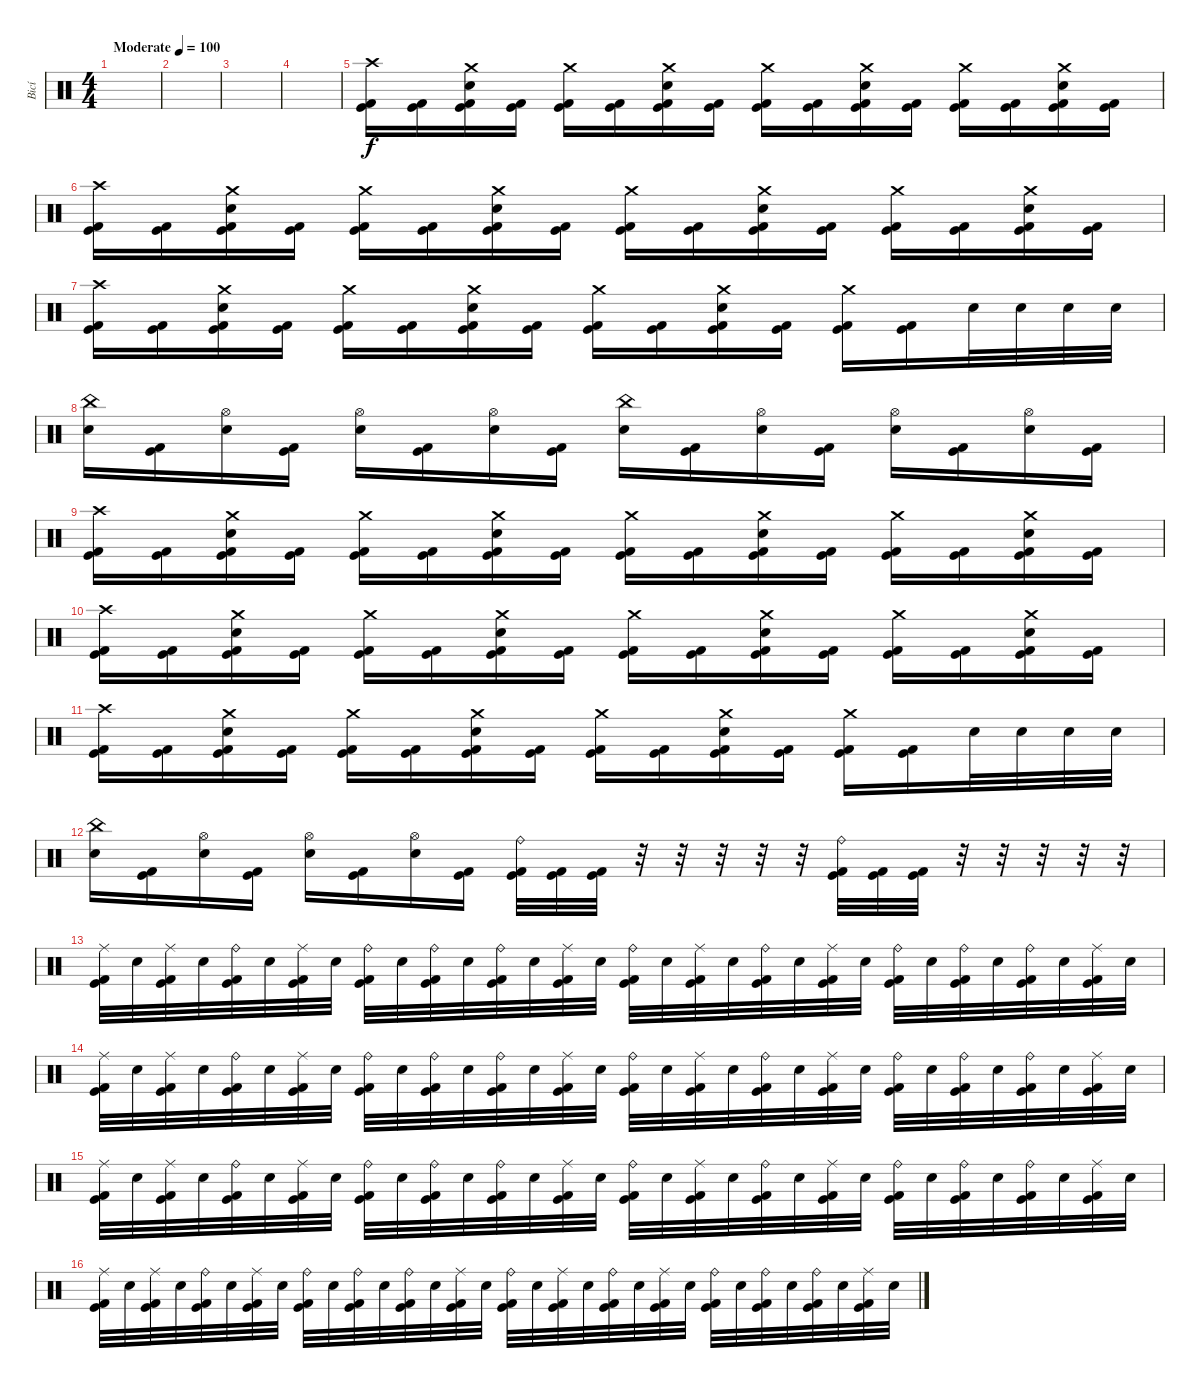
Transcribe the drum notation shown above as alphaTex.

\track ("Bicí" "Bicí") {instrument percussion}
\staff {score}
\articulation defaults
\ts (4 4)
\tempo (100 "Moderate")
\clef neutral
\ks c
|
|
|
|
("Kick (hit) 2" "Kick (hit)" "Crash high (hit)").16 ("Kick (hit) 2" "Kick (hit)").16 ("Kick (hit) 2" "Kick (hit)" "Electric Snare (hit)" "Crash medium (hit)").16 ("Kick (hit)" "Kick (hit) 2").16 ("Kick (hit) 2" "Kick (hit)" "Crash medium (hit)").16 ("Kick (hit) 2" "Kick (hit)").16 ("Kick (hit) 2" "Kick (hit)" "Electric Snare (hit)" "Crash medium (hit)").16 ("Kick (hit)" "Kick (hit) 2").16 ("Kick (hit) 2" "Kick (hit)" "Crash medium (hit)").16 ("Kick (hit) 2" "Kick (hit)").16 ("Kick (hit) 2" "Kick (hit)" "Electric Snare (hit)" "Crash medium (hit)").16 ("Kick (hit)" "Kick (hit) 2").16 ("Kick (hit) 2" "Kick (hit)" "Crash medium (hit)").16 ("Kick (hit) 2" "Kick (hit)").16 ("Kick (hit) 2" "Kick (hit)" "Electric Snare (hit)" "Crash medium (hit)").16 ("Kick (hit)" "Kick (hit) 2").16 |
("Kick (hit) 2" "Kick (hit)" "Crash high (hit)").16 ("Kick (hit) 2" "Kick (hit)").16 ("Kick (hit) 2" "Kick (hit)" "Electric Snare (hit)" "Crash medium (hit)").16 ("Kick (hit)" "Kick (hit) 2").16 ("Kick (hit) 2" "Kick (hit)" "Crash medium (hit)").16 ("Kick (hit) 2" "Kick (hit)").16 ("Kick (hit) 2" "Kick (hit)" "Electric Snare (hit)" "Crash medium (hit)").16 ("Kick (hit)" "Kick (hit) 2").16 ("Kick (hit) 2" "Kick (hit)" "Crash medium (hit)").16 ("Kick (hit) 2" "Kick (hit)").16 ("Kick (hit) 2" "Kick (hit)" "Electric Snare (hit)" "Crash medium (hit)").16 ("Kick (hit)" "Kick (hit) 2").16 ("Kick (hit) 2" "Kick (hit)" "Crash medium (hit)").16 ("Kick (hit) 2" "Kick (hit)").16 ("Kick (hit) 2" "Kick (hit)" "Electric Snare (hit)" "Crash medium (hit)").16 ("Kick (hit)" "Kick (hit) 2").16 |
("Kick (hit) 2" "Kick (hit)" "Crash high (hit)").16 ("Kick (hit) 2" "Kick (hit)").16 ("Kick (hit) 2" "Kick (hit)" "Electric Snare (hit)" "Crash medium (hit)").16 ("Kick (hit)" "Kick (hit) 2").16 ("Kick (hit) 2" "Kick (hit)" "Crash medium (hit)").16 ("Kick (hit) 2" "Kick (hit)").16 ("Kick (hit) 2" "Kick (hit)" "Electric Snare (hit)" "Crash medium (hit)").16 ("Kick (hit)" "Kick (hit) 2").16 ("Kick (hit) 2" "Kick (hit)" "Crash medium (hit)").16 ("Kick (hit) 2" "Kick (hit)").16 ("Kick (hit) 2" "Kick (hit)" "Electric Snare (hit)" "Crash medium (hit)").16 ("Kick (hit)" "Kick (hit) 2").16 ("Kick (hit) 2" "Kick (hit)" "Crash medium (hit)").16 ("Kick (hit) 2" "Kick (hit)").16 "Electric Snare (hit)".32 "Electric Snare (hit)".32 "Electric Snare (hit)".32 "Electric Snare (hit)".32 |
("Electric Snare (hit)" "China (hit)").16 ("Kick (hit) 2" "Kick (hit)").16 ("Hi-Hat (open)" "Electric Snare (hit)").16 ("Kick (hit) 2" "Kick (hit)").16 ("Hi-Hat (open)" "Electric Snare (hit)").16 ("Kick (hit) 2" "Kick (hit)").16 ("Hi-Hat (open)" "Electric Snare (hit)").16 ("Kick (hit) 2" "Kick (hit)").16 ("China (hit)" "Electric Snare (hit)").16 ("Kick (hit) 2" "Kick (hit)").16 ("Hi-Hat (open)" "Electric Snare (hit)").16 ("Kick (hit) 2" "Kick (hit)").16 ("Hi-Hat (open)" "Electric Snare (hit)").16 ("Kick (hit) 2" "Kick (hit)").16 ("Hi-Hat (open)" "Electric Snare (hit)").16 ("Kick (hit) 2" "Kick (hit)").16 |
("Kick (hit) 2" "Kick (hit)" "Crash high (hit)").16 ("Kick (hit) 2" "Kick (hit)").16 ("Kick (hit) 2" "Kick (hit)" "Electric Snare (hit)" "Crash medium (hit)").16 ("Kick (hit)" "Kick (hit) 2").16 ("Kick (hit) 2" "Kick (hit)" "Crash medium (hit)").16 ("Kick (hit) 2" "Kick (hit)").16 ("Kick (hit) 2" "Kick (hit)" "Electric Snare (hit)" "Crash medium (hit)").16 ("Kick (hit)" "Kick (hit) 2").16 ("Kick (hit) 2" "Kick (hit)" "Crash medium (hit)").16 ("Kick (hit) 2" "Kick (hit)").16 ("Kick (hit) 2" "Kick (hit)" "Electric Snare (hit)" "Crash medium (hit)").16 ("Kick (hit)" "Kick (hit) 2").16 ("Kick (hit) 2" "Kick (hit)" "Crash medium (hit)").16 ("Kick (hit) 2" "Kick (hit)").16 ("Kick (hit) 2" "Kick (hit)" "Electric Snare (hit)" "Crash medium (hit)").16 ("Kick (hit)" "Kick (hit) 2").16 |
("Kick (hit) 2" "Kick (hit)" "Crash high (hit)").16 ("Kick (hit) 2" "Kick (hit)").16 ("Kick (hit) 2" "Kick (hit)" "Electric Snare (hit)" "Crash medium (hit)").16 ("Kick (hit)" "Kick (hit) 2").16 ("Kick (hit) 2" "Kick (hit)" "Crash medium (hit)").16 ("Kick (hit) 2" "Kick (hit)").16 ("Kick (hit) 2" "Kick (hit)" "Electric Snare (hit)" "Crash medium (hit)").16 ("Kick (hit)" "Kick (hit) 2").16 ("Kick (hit) 2" "Kick (hit)" "Crash medium (hit)").16 ("Kick (hit) 2" "Kick (hit)").16 ("Kick (hit) 2" "Kick (hit)" "Electric Snare (hit)" "Crash medium (hit)").16 ("Kick (hit)" "Kick (hit) 2").16 ("Kick (hit) 2" "Kick (hit)" "Crash medium (hit)").16 ("Kick (hit) 2" "Kick (hit)").16 ("Kick (hit) 2" "Kick (hit)" "Electric Snare (hit)" "Crash medium (hit)").16 ("Kick (hit)" "Kick (hit) 2").16 |
("Kick (hit) 2" "Kick (hit)" "Crash high (hit)").16 ("Kick (hit) 2" "Kick (hit)").16 ("Kick (hit) 2" "Kick (hit)" "Electric Snare (hit)" "Crash medium (hit)").16 ("Kick (hit)" "Kick (hit) 2").16 ("Kick (hit) 2" "Kick (hit)" "Crash medium (hit)").16 ("Kick (hit) 2" "Kick (hit)").16 ("Kick (hit) 2" "Kick (hit)" "Electric Snare (hit)" "Crash medium (hit)").16 ("Kick (hit)" "Kick (hit) 2").16 ("Kick (hit) 2" "Kick (hit)" "Crash medium (hit)").16 ("Kick (hit) 2" "Kick (hit)").16 ("Kick (hit) 2" "Kick (hit)" "Electric Snare (hit)" "Crash medium (hit)").16 ("Kick (hit)" "Kick (hit) 2").16 ("Kick (hit) 2" "Kick (hit)" "Crash medium (hit)").16 ("Kick (hit) 2" "Kick (hit)").16 "Electric Snare (hit)".32 "Electric Snare (hit)".32 "Electric Snare (hit)".32 "Electric Snare (hit)".32 |
("Electric Snare (hit)" "China (hit)").16 ("Kick (hit) 2" "Kick (hit)").16 ("Hi-Hat (open)" "Electric Snare (hit)").16 ("Kick (hit) 2" "Kick (hit)").16 ("Hi-Hat (open)" "Electric Snare (hit)").16 ("Kick (hit) 2" "Kick (hit)").16 ("Hi-Hat (open)" "Electric Snare (hit)").16 ("Kick (hit) 2" "Kick (hit)").16 ("Ride (bell)" "Kick (hit)" "Kick (hit) 2").32 ("Kick (hit) 2" "Kick (hit)").32 ("Kick (hit) 2" "Kick (hit)").32 r.32 r.32 r.32 r.32 r.32 ("Ride (bell)" "Kick (hit)" "Kick (hit) 2").32 ("Kick (hit) 2" "Kick (hit)").32 ("Kick (hit) 2" "Kick (hit)").32 r.32 r.32 r.32 r.32 r.32 |
("Kick (hit) 2" "Kick (hit)" "Ride (middle)").32 "Electric Snare (hit)".32 ("Kick (hit) 2" "Kick (hit)" "Ride (middle)").32 "Electric Snare (hit)".32 ("Kick (hit) 2" "Kick (hit)" "Ride (bell)").32 "Electric Snare (hit)".32 ("Kick (hit) 2" "Kick (hit)" "Ride (middle)").32 "Electric Snare (hit)".32 ("Kick (hit) 2" "Kick (hit)" "Ride (bell)").32 "Electric Snare (hit)".32 ("Kick (hit) 2" "Kick (hit)" "Ride (bell)").32 "Electric Snare (hit)".32 ("Kick (hit) 2" "Kick (hit)" "Ride (bell)").32 "Electric Snare (hit)".32 ("Kick (hit) 2" "Kick (hit)" "Ride (middle)").32 "Electric Snare (hit)".32 ("Kick (hit) 2" "Kick (hit)" "Ride (bell)").32 "Electric Snare (hit)".32 ("Kick (hit) 2" "Kick (hit)" "Ride (middle)").32 "Electric Snare (hit)".32 ("Kick (hit) 2" "Kick (hit)" "Ride (bell)").32 "Electric Snare (hit)".32 ("Kick (hit) 2" "Kick (hit)" "Ride (middle)").32 "Electric Snare (hit)".32 ("Kick (hit) 2" "Kick (hit)" "Ride (bell)").32 "Electric Snare (hit)".32 ("Kick (hit) 2" "Kick (hit)" "Ride (bell)").32 "Electric Snare (hit)".32 ("Kick (hit) 2" "Kick (hit)" "Ride (bell)").32 "Electric Snare (hit)".32 ("Kick (hit) 2" "Kick (hit)" "Ride (middle)").32 "Electric Snare (hit)".32 |
("Kick (hit) 2" "Kick (hit)" "Ride (middle)").32 "Electric Snare (hit)".32 ("Kick (hit) 2" "Kick (hit)" "Ride (middle)").32 "Electric Snare (hit)".32 ("Kick (hit) 2" "Kick (hit)" "Ride (bell)").32 "Electric Snare (hit)".32 ("Kick (hit) 2" "Kick (hit)" "Ride (middle)").32 "Electric Snare (hit)".32 ("Kick (hit) 2" "Kick (hit)" "Ride (bell)").32 "Electric Snare (hit)".32 ("Kick (hit) 2" "Kick (hit)" "Ride (bell)").32 "Electric Snare (hit)".32 ("Kick (hit) 2" "Kick (hit)" "Ride (bell)").32 "Electric Snare (hit)".32 ("Kick (hit) 2" "Kick (hit)" "Ride (middle)").32 "Electric Snare (hit)".32 ("Kick (hit) 2" "Kick (hit)" "Ride (bell)").32 "Electric Snare (hit)".32 ("Kick (hit) 2" "Kick (hit)" "Ride (middle)").32 "Electric Snare (hit)".32 ("Kick (hit) 2" "Kick (hit)" "Ride (bell)").32 "Electric Snare (hit)".32 ("Kick (hit) 2" "Kick (hit)" "Ride (middle)").32 "Electric Snare (hit)".32 ("Kick (hit) 2" "Kick (hit)" "Ride (bell)").32 "Electric Snare (hit)".32 ("Kick (hit) 2" "Kick (hit)" "Ride (bell)").32 "Electric Snare (hit)".32 ("Kick (hit) 2" "Kick (hit)" "Ride (bell)").32 "Electric Snare (hit)".32 ("Kick (hit) 2" "Kick (hit)" "Ride (middle)").32 "Electric Snare (hit)".32 |
("Kick (hit) 2" "Kick (hit)" "Ride (middle)").32 "Electric Snare (hit)".32 ("Kick (hit) 2" "Kick (hit)" "Ride (middle)").32 "Electric Snare (hit)".32 ("Kick (hit) 2" "Kick (hit)" "Ride (bell)").32 "Electric Snare (hit)".32 ("Kick (hit) 2" "Kick (hit)" "Ride (middle)").32 "Electric Snare (hit)".32 ("Kick (hit) 2" "Kick (hit)" "Ride (bell)").32 "Electric Snare (hit)".32 ("Kick (hit) 2" "Kick (hit)" "Ride (bell)").32 "Electric Snare (hit)".32 ("Kick (hit) 2" "Kick (hit)" "Ride (bell)").32 "Electric Snare (hit)".32 ("Kick (hit) 2" "Kick (hit)" "Ride (middle)").32 "Electric Snare (hit)".32 ("Kick (hit) 2" "Kick (hit)" "Ride (bell)").32 "Electric Snare (hit)".32 ("Kick (hit) 2" "Kick (hit)" "Ride (middle)").32 "Electric Snare (hit)".32 ("Kick (hit) 2" "Kick (hit)" "Ride (bell)").32 "Electric Snare (hit)".32 ("Kick (hit) 2" "Kick (hit)" "Ride (middle)").32 "Electric Snare (hit)".32 ("Kick (hit) 2" "Kick (hit)" "Ride (bell)").32 "Electric Snare (hit)".32 ("Kick (hit) 2" "Kick (hit)" "Ride (bell)").32 "Electric Snare (hit)".32 ("Kick (hit) 2" "Kick (hit)" "Ride (bell)").32 "Electric Snare (hit)".32 ("Kick (hit) 2" "Kick (hit)" "Ride (middle)").32 "Electric Snare (hit)".32 |
("Kick (hit) 2" "Kick (hit)" "Ride (middle)").32 "Electric Snare (hit)".32 ("Kick (hit) 2" "Kick (hit)" "Ride (middle)").32 "Electric Snare (hit)".32 ("Kick (hit) 2" "Kick (hit)" "Ride (bell)").32 "Electric Snare (hit)".32 ("Kick (hit) 2" "Kick (hit)" "Ride (middle)").32 "Electric Snare (hit)".32 ("Kick (hit) 2" "Kick (hit)" "Ride (bell)").32 "Electric Snare (hit)".32 ("Kick (hit) 2" "Kick (hit)" "Ride (bell)").32 "Electric Snare (hit)".32 ("Kick (hit) 2" "Kick (hit)" "Ride (bell)").32 "Electric Snare (hit)".32 ("Kick (hit) 2" "Kick (hit)" "Ride (middle)").32 "Electric Snare (hit)".32 ("Kick (hit) 2" "Kick (hit)" "Ride (bell)").32 "Electric Snare (hit)".32 ("Kick (hit) 2" "Kick (hit)" "Ride (middle)").32 "Electric Snare (hit)".32 ("Kick (hit) 2" "Kick (hit)" "Ride (bell)").32 "Electric Snare (hit)".32 ("Kick (hit) 2" "Kick (hit)" "Ride (middle)").32 "Electric Snare (hit)".32 ("Kick (hit) 2" "Kick (hit)" "Ride (bell)").32 "Electric Snare (hit)".32 ("Kick (hit) 2" "Kick (hit)" "Ride (bell)").32 "Electric Snare (hit)".32 ("Kick (hit) 2" "Kick (hit)" "Ride (bell)").32 "Electric Snare (hit)".32 ("Kick (hit) 2" "Kick (hit)" "Ride (middle)").32 "Electric Snare (hit)".32
